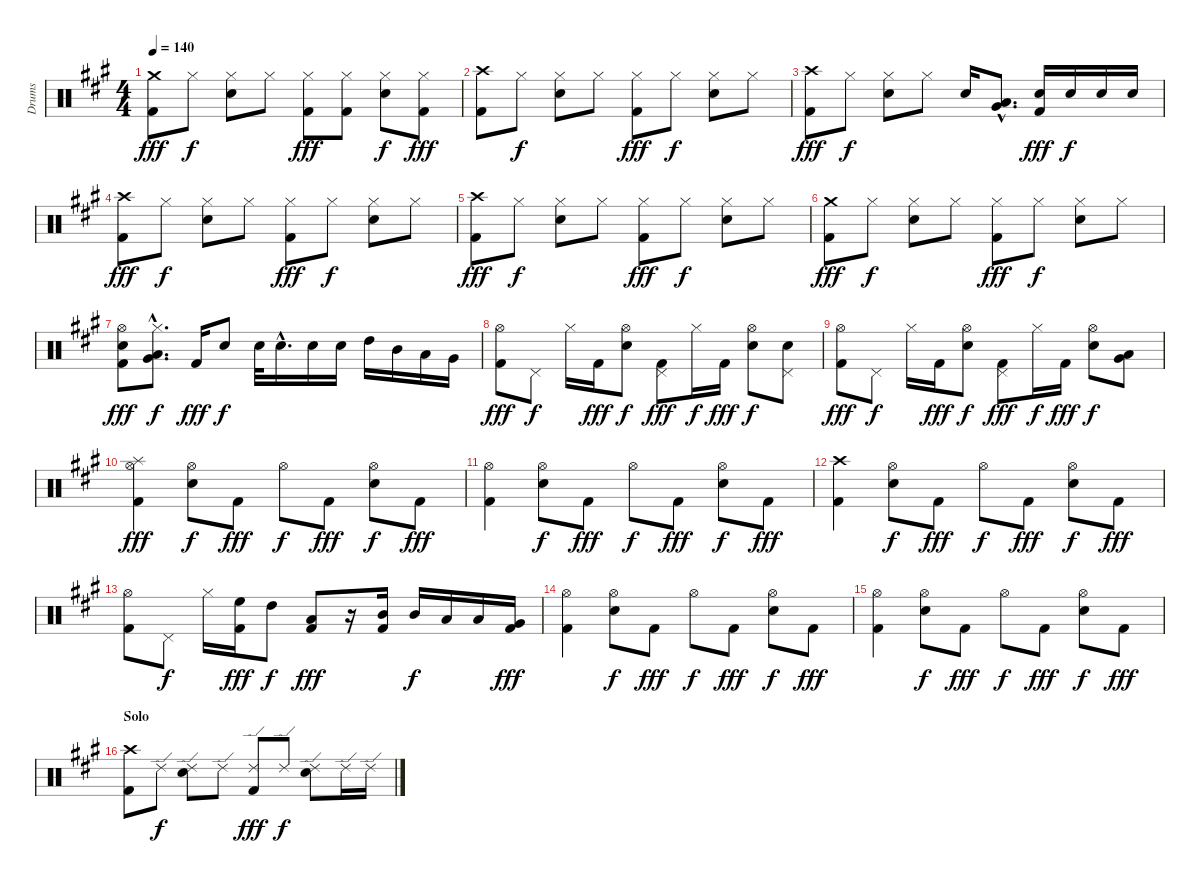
\track ("Drums" "Drums") {instrument percussion}
\staff {score}
\articulation defaults
\ts (4 4)
\tempo 140
\clef neutral
\ks a
("Crash medium (hit)" "Kick (hit) 2").8{dy fff} "Hi-Hat (closed)".8{dy f} ("Hi-Hat (closed)" "Electric Snare (hit)").8 "Hi-Hat (closed)".8 ("Hi-Hat (closed)" "Kick (hit) 2").8{dy fff} ("Hi-Hat (closed)" "Kick (hit) 2").8 ("Hi-Hat (closed)" "Electric Snare (hit)").8{dy f} ("Hi-Hat (closed)" "Kick (hit) 2").8{dy fff} |
("Crash high (hit)" "Kick (hit) 2").8 "Hi-Hat (closed)".8{dy f} ("Hi-Hat (closed)" "Electric Snare (hit)").8 "Hi-Hat (closed)".8 ("Hi-Hat (closed)" "Kick (hit) 2").8{dy fff} "Hi-Hat (closed)".8{dy f} ("Hi-Hat (closed)" "Electric Snare (hit)").8 "Hi-Hat (closed)".8 |
("Crash high (hit)" "Kick (hit) 2").8{dy fff} "Hi-Hat (closed)".8{dy f} ("Hi-Hat (closed)" "Electric Snare (hit)").8 "Hi-Hat (closed)".8 "Electric Snare (hit)".16 ("Low Tom (hit)"{hac} "Very Low Tom (hit)"{hac}).8{d} ("Electric Snare (hit)" "Kick (hit) 2").16{dy fff} "Electric Snare (hit)".16{dy f} "Electric Snare (hit)".16 "Electric Snare (hit)".16 |
("Crash high (hit)" "Kick (hit) 2").8{dy fff} "Hi-Hat (closed)".8{dy f} ("Hi-Hat (closed)" "Electric Snare (hit)").8 "Hi-Hat (closed)".8 ("Hi-Hat (closed)" "Kick (hit) 2").8{dy fff} "Hi-Hat (closed)".8{dy f} ("Hi-Hat (closed)" "Electric Snare (hit)").8 "Hi-Hat (closed)".8 |
("Crash high (hit)" "Kick (hit) 2").8{dy fff} "Hi-Hat (closed)".8{dy f} ("Hi-Hat (closed)" "Electric Snare (hit)").8 "Hi-Hat (closed)".8 ("Hi-Hat (closed)" "Kick (hit) 2").8{dy fff} "Hi-Hat (closed)".8{dy f} ("Hi-Hat (closed)" "Electric Snare (hit)").8 "Hi-Hat (closed)".8 |
("Crash medium (hit)" "Kick (hit) 2").8{dy fff} "Hi-Hat (closed)".8{dy f} ("Hi-Hat (closed)" "Electric Snare (hit)").8 "Hi-Hat (closed)".8 ("Hi-Hat (closed)" "Kick (hit) 2").8{dy fff} "Hi-Hat (closed)".8{dy f} ("Hi-Hat (closed)" "Electric Snare (hit)").8 "Hi-Hat (closed)".8 |
("Hi-Hat (open)" "Electric Snare (hit)" "Kick (hit) 2").8{dy fff} ("Hi-Hat (closed)"{hac} "Low Tom (hit)"{hac} "Very Low Tom (hit)"{hac}).8{d dy f} "Kick (hit) 2".16{dy fff} "Electric Snare (hit)".8{dy f} "Electric Snare (hit)".32 "Electric Snare (hit)"{hac}.16{d} "Electric Snare (hit)".16 "Electric Snare (hit)".16 "High Tom (hit)".16 "Mid Tom (hit)".16 "Low Tom (hit)".16 "Very Low Tom (hit)".16 |
("Hi-Hat (open)" "Kick (hit) 2").8{dy fff} "Pedal Hi-Hat (hit)".8{dy f} "Hi-Hat (closed)".16 "Kick (hit) 2".16{dy fff} ("Hi-Hat (open)" "Electric Snare (hit)").8{dy f} ("Pedal Hi-Hat (hit)" "Kick (hit) 2").8{dy fff} "Hi-Hat (closed)".16{dy f} "Kick (hit) 2".16{dy fff} ("Hi-Hat (open)" "Electric Snare (hit)").8{dy f} ("Pedal Hi-Hat (hit)" "Electric Snare (hit)").8 |
("Hi-Hat (open)" "Kick (hit) 2").8{dy fff} "Pedal Hi-Hat (hit)".8{dy f} "Hi-Hat (closed)".16 "Kick (hit) 2".16{dy fff} ("Hi-Hat (open)" "Electric Snare (hit)").8{dy f} ("Pedal Hi-Hat (hit)" "Kick (hit) 2").8{dy fff} "Hi-Hat (closed)".16{dy f} "Kick (hit) 2".16{dy fff} ("Hi-Hat (open)" "Electric Snare (hit)").8{dy f} ("Low Tom (hit)" "Very Low Tom (hit)").8 |
("Hi-Hat (open)" "Splash (hit)" "Kick (hit) 2").4{dy fff} ("Hi-Hat (open)" "Electric Snare (hit)").8{dy f} "Kick (hit) 2".8{dy fff} "Hi-Hat (open)".8{dy f} "Kick (hit) 2".8{dy fff} ("Hi-Hat (open)" "Electric Snare (hit)").8{dy f} "Kick (hit) 2".8{dy fff} |
("Hi-Hat (open)" "Kick (hit) 2").4 ("Hi-Hat (open)" "Electric Snare (hit)").8{dy f} "Kick (hit) 2".8{dy fff} "Hi-Hat (open)".8{dy f} "Kick (hit) 2".8{dy fff} ("Hi-Hat (open)" "Electric Snare (hit)").8{dy f} "Kick (hit) 2".8{dy fff} |
("Crash high (hit)" "Kick (hit) 2").4 ("Hi-Hat (open)" "Electric Snare (hit)").8{dy f} "Kick (hit) 2".8{dy fff} "Hi-Hat (open)".8{dy f} "Kick (hit) 2".8{dy fff} ("Hi-Hat (open)" "Electric Snare (hit)").8{dy f} "Kick (hit) 2".8{dy fff} |
("Hi-Hat (open)" "Kick (hit) 2").8 "Pedal Hi-Hat (hit)".8{dy f} "Hi-Hat (closed)".16 ("High Floor Tom (hit)" "Kick (hit) 2").16{dy fff} "High Tom (hit)".8{dy f} ("Low Tom (hit)" "Kick (hit) 2").8{dy fff} r.16 ("Mid Tom (hit)" "Kick (hit) 2").16 "Mid Tom (hit)".16{dy f} "Low Tom (hit)".16 "Low Tom (hit)".16 ("Very Low Tom (hit)" "Kick (hit) 2").16{dy fff} |
("Hi-Hat (open)" "Kick (hit) 2").4 ("Hi-Hat (open)" "Electric Snare (hit)").8{dy f} "Kick (hit) 2".8{dy fff} "Hi-Hat (open)".8{dy f} "Kick (hit) 2".8{dy fff} ("Hi-Hat (open)" "Electric Snare (hit)").8{dy f} "Kick (hit) 2".8{dy fff} |
("Hi-Hat (open)" "Kick (hit) 2").4 ("Hi-Hat (open)" "Electric Snare (hit)").8{dy f} "Kick (hit) 2".8{dy fff} "Hi-Hat (open)".8{dy f} "Kick (hit) 2".8{dy fff} ("Hi-Hat (open)" "Electric Snare (hit)").8{dy f} "Kick (hit) 2".8{dy fff} |
\section ("" "Solo")
("Crash high (hit)" "Kick (hit) 2").8 "Ride (edge) 2".8{dy f} ("Ride (edge) 2" "Electric Snare (hit)").8 "Ride (edge) 2".8 ("Ride (edge) 2" "Kick (hit) 2").8{dy fff} "Ride (edge) 2".8{dy f} ("Ride (edge) 2" "Electric Snare (hit)").8 "Ride (edge) 2".16 "Ride (edge) 2".16
